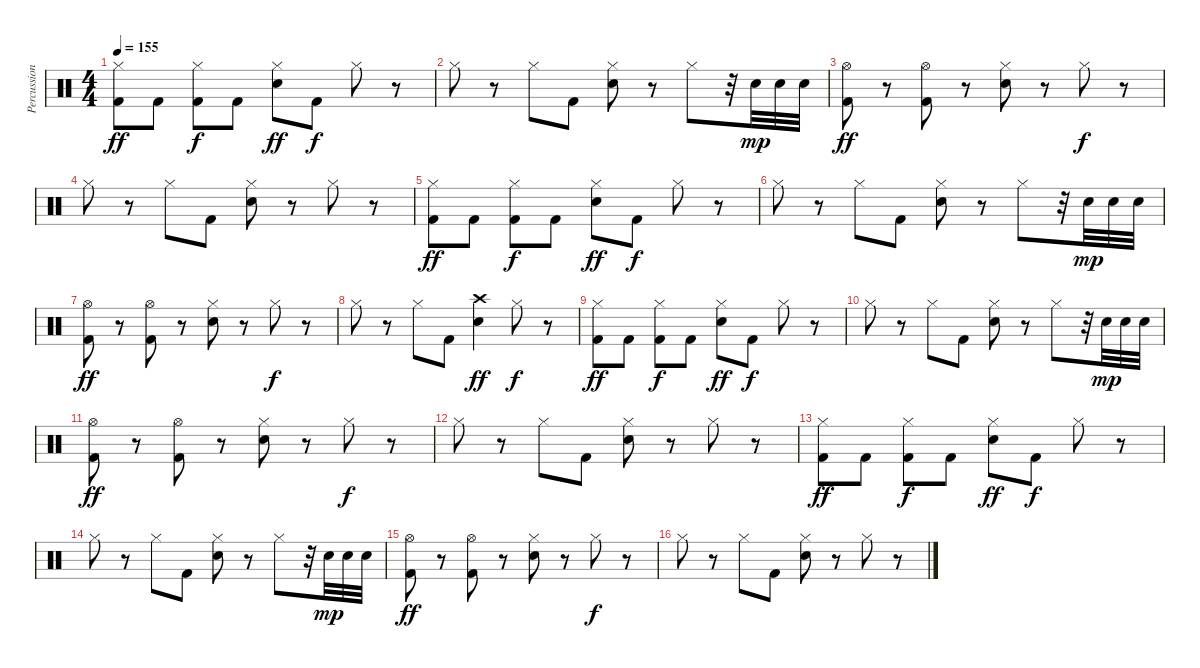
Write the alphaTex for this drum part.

\track ("Percussions" "Percussion") {instrument percussion}
\staff {score}
\articulation defaults
\ts (4 4)
\tempo 155
\clef neutral
\ks c
("Hi-Hat (closed)" "Kick (hit) 2").8{dy ff} "Kick (hit) 2".8 ("Hi-Hat (closed)" "Kick (hit) 2").8{dy f} "Kick (hit) 2".8 ("Hi-Hat (closed)" "Electric Snare (hit)").8{dy ff} "Kick (hit) 2".8{dy f} "Hi-Hat (closed)".8 r.8 |
"Hi-Hat (closed)".8 r.8 "Hi-Hat (closed)".8 "Kick (hit) 2".8 ("Hi-Hat (closed)" "Electric Snare (hit)").8 r.8 "Hi-Hat (closed)".8 r.32 "Electric Snare (hit)".32{dy mp} "Electric Snare (hit)".32 "Electric Snare (hit)".32 |
("Hi-Hat (open)" "Kick (hit) 2").8{dy ff} r.8 ("Hi-Hat (open)" "Kick (hit) 2").8 r.8 ("Hi-Hat (closed)" "Electric Snare (hit)").8 r.8 "Hi-Hat (closed)".8{dy f} r.8 |
"Hi-Hat (closed)".8 r.8 "Hi-Hat (closed)".8 "Kick (hit) 2".8 ("Hi-Hat (closed)" "Electric Snare (hit)").8 r.8 "Hi-Hat (closed)".8 r.8 |
("Hi-Hat (closed)" "Kick (hit) 2").8{dy ff} "Kick (hit) 2".8 ("Hi-Hat (closed)" "Kick (hit) 2").8{dy f} "Kick (hit) 2".8 ("Hi-Hat (closed)" "Electric Snare (hit)").8{dy ff} "Kick (hit) 2".8{dy f} "Hi-Hat (closed)".8 r.8 |
"Hi-Hat (closed)".8 r.8 "Hi-Hat (closed)".8 "Kick (hit) 2".8 ("Hi-Hat (closed)" "Electric Snare (hit)").8 r.8 "Hi-Hat (closed)".8 r.32 "Electric Snare (hit)".32{dy mp} "Electric Snare (hit)".32 "Electric Snare (hit)".32 |
("Hi-Hat (open)" "Kick (hit) 2").8{dy ff} r.8 ("Hi-Hat (open)" "Kick (hit) 2").8 r.8 ("Hi-Hat (closed)" "Electric Snare (hit)").8 r.8 "Hi-Hat (closed)".8{dy f} r.8 |
"Hi-Hat (closed)".8 r.8 "Hi-Hat (closed)".8 "Kick (hit) 2".8 ("Crash high (hit)" "Electric Snare (hit)").4{dy ff} "Hi-Hat (closed)".8{dy f} r.8 |
("Hi-Hat (closed)" "Kick (hit) 2").8{dy ff} "Kick (hit) 2".8 ("Hi-Hat (closed)" "Kick (hit) 2").8{dy f} "Kick (hit) 2".8 ("Hi-Hat (closed)" "Electric Snare (hit)").8{dy ff} "Kick (hit) 2".8{dy f} "Hi-Hat (closed)".8 r.8 |
"Hi-Hat (closed)".8 r.8 "Hi-Hat (closed)".8 "Kick (hit) 2".8 ("Hi-Hat (closed)" "Electric Snare (hit)").8 r.8 "Hi-Hat (closed)".8 r.32 "Electric Snare (hit)".32{dy mp} "Electric Snare (hit)".32 "Electric Snare (hit)".32 |
("Hi-Hat (open)" "Kick (hit) 2").8{dy ff} r.8 ("Hi-Hat (open)" "Kick (hit) 2").8 r.8 ("Hi-Hat (closed)" "Electric Snare (hit)").8 r.8 "Hi-Hat (closed)".8{dy f} r.8 |
"Hi-Hat (closed)".8 r.8 "Hi-Hat (closed)".8 "Kick (hit) 2".8 ("Hi-Hat (closed)" "Electric Snare (hit)").8 r.8 "Hi-Hat (closed)".8 r.8 |
("Hi-Hat (closed)" "Kick (hit) 2").8{dy ff} "Kick (hit) 2".8 ("Hi-Hat (closed)" "Kick (hit) 2").8{dy f} "Kick (hit) 2".8 ("Hi-Hat (closed)" "Electric Snare (hit)").8{dy ff} "Kick (hit) 2".8{dy f} "Hi-Hat (closed)".8 r.8 |
"Hi-Hat (closed)".8 r.8 "Hi-Hat (closed)".8 "Kick (hit) 2".8 ("Hi-Hat (closed)" "Electric Snare (hit)").8 r.8 "Hi-Hat (closed)".8 r.32 "Electric Snare (hit)".32{dy mp} "Electric Snare (hit)".32 "Electric Snare (hit)".32 |
("Hi-Hat (open)" "Kick (hit) 2").8{dy ff} r.8 ("Hi-Hat (open)" "Kick (hit) 2").8 r.8 ("Hi-Hat (closed)" "Electric Snare (hit)").8 r.8 "Hi-Hat (closed)".8{dy f} r.8 |
"Hi-Hat (closed)".8 r.8 "Hi-Hat (closed)".8 "Kick (hit) 2".8 ("Hi-Hat (closed)" "Electric Snare (hit)").8 r.8 "Hi-Hat (closed)".8 r.8
